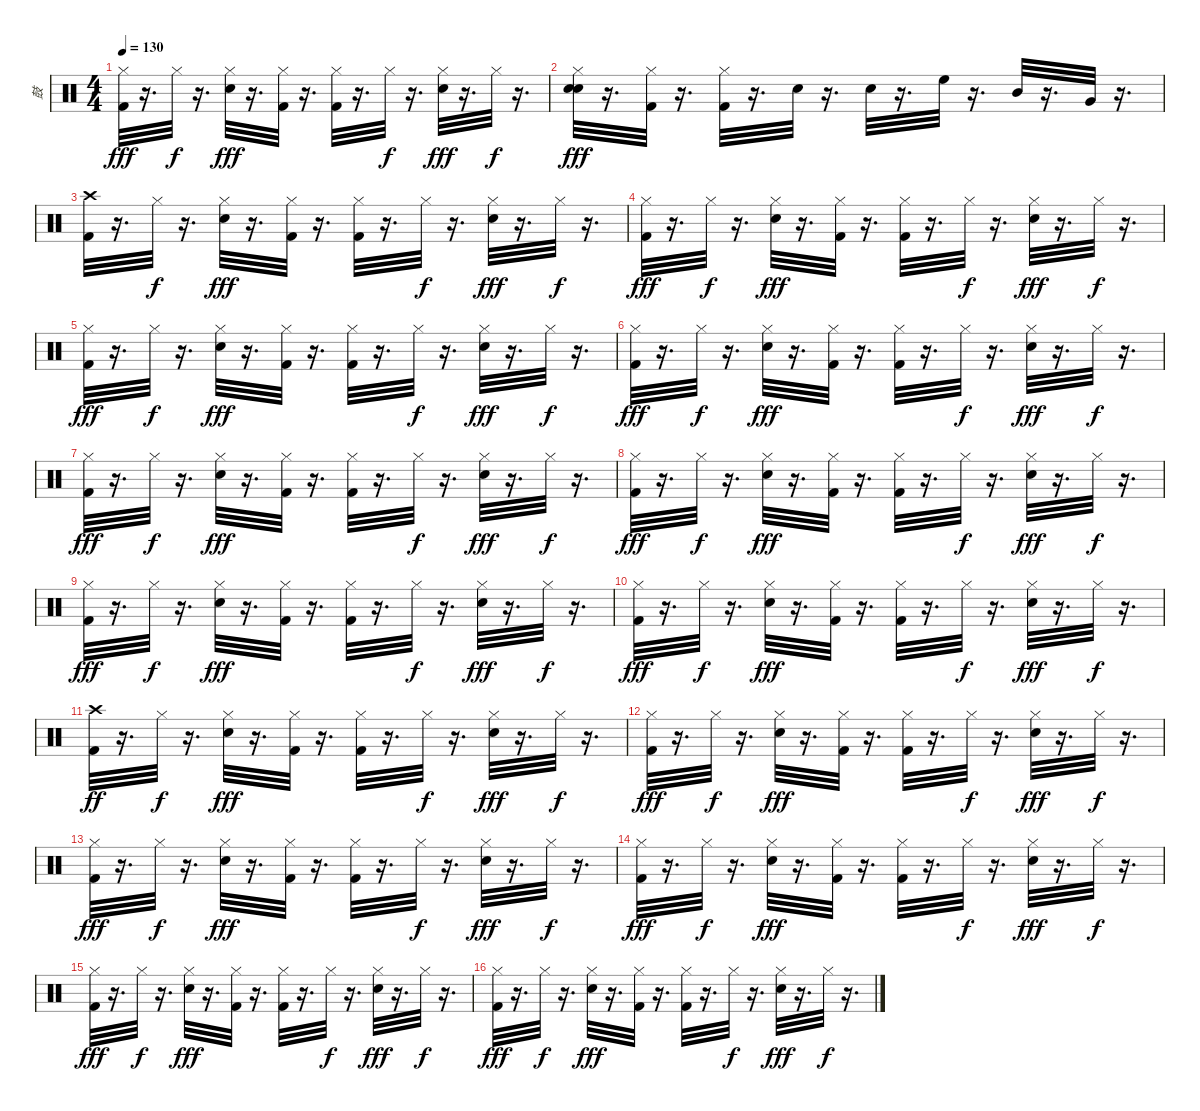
\track ("鼓" "鼓") {instrument percussion}
\staff {score}
\articulation defaults
\ts (4 4)
\tempo 130
\clef neutral
\ks c
("Kick (hit) 2" "Hi-Hat (closed)").32{dy fff} r.16{d} "Hi-Hat (closed)".32{dy f} r.16{d} ("Hi-Hat (closed)" "Electric Snare (hit)").32{dy fff} r.16{d} ("Kick (hit) 2" "Hi-Hat (closed)").32 r.16{d} ("Kick (hit) 2" "Hi-Hat (closed)").32 r.16{d} "Hi-Hat (closed)".32{dy f} r.16{d} ("Hi-Hat (closed)" "Electric Snare (hit)").32{dy fff} r.16{d} "Hi-Hat (closed)".32{dy f} r.16{d} |
("Electric Snare (hit)" "Hi-Hat (closed)" "Electric Snare (hit)").32{dy fff} r.16{d} ("Kick (hit) 2" "Hi-Hat (closed)").32 r.16{d} ("Hi-Hat (closed)" "Kick (hit) 2").32 r.16{d} "Electric Snare (hit)".32 r.16{d} "Electric Snare (hit)".32 r.16{d} "High Floor Tom (hit)".32 r.16{d} "Mid Tom (hit)".32 r.16{d} "Very Low Tom (hit)".32 r.16{d} |
("Crash high (hit)" "Kick (hit) 2").32 r.16{d} "Hi-Hat (closed)".32{dy f} r.16{d} ("Hi-Hat (closed)" "Electric Snare (hit)").32{dy fff} r.16{d} ("Kick (hit) 2" "Hi-Hat (closed)").32 r.16{d} ("Kick (hit) 2" "Hi-Hat (closed)").32 r.16{d} "Hi-Hat (closed)".32{dy f} r.16{d} ("Hi-Hat (closed)" "Electric Snare (hit)").32{dy fff} r.16{d} "Hi-Hat (closed)".32{dy f} r.16{d} |
("Kick (hit) 2" "Hi-Hat (closed)").32{dy fff} r.16{d} "Hi-Hat (closed)".32{dy f} r.16{d} ("Hi-Hat (closed)" "Electric Snare (hit)").32{dy fff} r.16{d} ("Kick (hit) 2" "Hi-Hat (closed)").32 r.16{d} ("Kick (hit) 2" "Hi-Hat (closed)").32 r.16{d} "Hi-Hat (closed)".32{dy f} r.16{d} ("Hi-Hat (closed)" "Electric Snare (hit)").32{dy fff} r.16{d} "Hi-Hat (closed)".32{dy f} r.16{d} |
("Kick (hit) 2" "Hi-Hat (closed)").32{dy fff} r.16{d} "Hi-Hat (closed)".32{dy f} r.16{d} ("Hi-Hat (closed)" "Electric Snare (hit)").32{dy fff} r.16{d} ("Kick (hit) 2" "Hi-Hat (closed)").32 r.16{d} ("Kick (hit) 2" "Hi-Hat (closed)").32 r.16{d} "Hi-Hat (closed)".32{dy f} r.16{d} ("Hi-Hat (closed)" "Electric Snare (hit)").32{dy fff} r.16{d} "Hi-Hat (closed)".32{dy f} r.16{d} |
("Kick (hit) 2" "Hi-Hat (closed)").32{dy fff} r.16{d} "Hi-Hat (closed)".32{dy f} r.16{d} ("Hi-Hat (closed)" "Electric Snare (hit)").32{dy fff} r.16{d} ("Kick (hit) 2" "Hi-Hat (closed)").32 r.16{d} ("Kick (hit) 2" "Hi-Hat (closed)").32 r.16{d} "Hi-Hat (closed)".32{dy f} r.16{d} ("Hi-Hat (closed)" "Electric Snare (hit)").32{dy fff} r.16{d} "Hi-Hat (closed)".32{dy f} r.16{d} |
("Kick (hit) 2" "Hi-Hat (closed)").32{dy fff} r.16{d} "Hi-Hat (closed)".32{dy f} r.16{d} ("Hi-Hat (closed)" "Electric Snare (hit)").32{dy fff} r.16{d} ("Kick (hit) 2" "Hi-Hat (closed)").32 r.16{d} ("Kick (hit) 2" "Hi-Hat (closed)").32 r.16{d} "Hi-Hat (closed)".32{dy f} r.16{d} ("Hi-Hat (closed)" "Electric Snare (hit)").32{dy fff} r.16{d} "Hi-Hat (closed)".32{dy f} r.16{d} |
("Kick (hit) 2" "Hi-Hat (closed)").32{dy fff} r.16{d} "Hi-Hat (closed)".32{dy f} r.16{d} ("Hi-Hat (closed)" "Electric Snare (hit)").32{dy fff} r.16{d} ("Kick (hit) 2" "Hi-Hat (closed)").32 r.16{d} ("Kick (hit) 2" "Hi-Hat (closed)").32 r.16{d} "Hi-Hat (closed)".32{dy f} r.16{d} ("Hi-Hat (closed)" "Electric Snare (hit)").32{dy fff} r.16{d} "Hi-Hat (closed)".32{dy f} r.16{d} |
("Kick (hit) 2" "Hi-Hat (closed)").32{dy fff} r.16{d} "Hi-Hat (closed)".32{dy f} r.16{d} ("Hi-Hat (closed)" "Electric Snare (hit)").32{dy fff} r.16{d} ("Kick (hit) 2" "Hi-Hat (closed)").32 r.16{d} ("Kick (hit) 2" "Hi-Hat (closed)").32 r.16{d} "Hi-Hat (closed)".32{dy f} r.16{d} ("Hi-Hat (closed)" "Electric Snare (hit)").32{dy fff} r.16{d} "Hi-Hat (closed)".32{dy f} r.16{d} |
("Kick (hit) 2" "Hi-Hat (closed)").32{dy fff} r.16{d} "Hi-Hat (closed)".32{dy f} r.16{d} ("Hi-Hat (closed)" "Electric Snare (hit)").32{dy fff} r.16{d} ("Kick (hit) 2" "Hi-Hat (closed)").32 r.16{d} ("Kick (hit) 2" "Hi-Hat (closed)").32 r.16{d} "Hi-Hat (closed)".32{dy f} r.16{d} ("Hi-Hat (closed)" "Electric Snare (hit)").32{dy fff} r.16{d} "Hi-Hat (closed)".32{dy f} r.16{d} |
("Kick (hit) 2" "Crash high (hit)").32{dy ff} r.16{d} "Hi-Hat (closed)".32{dy f} r.16{d} ("Hi-Hat (closed)" "Electric Snare (hit)").32{dy fff} r.16{d} ("Kick (hit) 2" "Hi-Hat (closed)").32 r.16{d} ("Kick (hit) 2" "Hi-Hat (closed)").32 r.16{d} "Hi-Hat (closed)".32{dy f} r.16{d} ("Hi-Hat (closed)" "Electric Snare (hit)").32{dy fff} r.16{d} "Hi-Hat (closed)".32{dy f} r.16{d} |
("Kick (hit) 2" "Hi-Hat (closed)").32{dy fff} r.16{d} "Hi-Hat (closed)".32{dy f} r.16{d} ("Hi-Hat (closed)" "Electric Snare (hit)").32{dy fff} r.16{d} ("Kick (hit) 2" "Hi-Hat (closed)").32 r.16{d} ("Kick (hit) 2" "Hi-Hat (closed)").32 r.16{d} "Hi-Hat (closed)".32{dy f} r.16{d} ("Hi-Hat (closed)" "Electric Snare (hit)").32{dy fff} r.16{d} "Hi-Hat (closed)".32{dy f} r.16{d} |
("Kick (hit) 2" "Hi-Hat (closed)").32{dy fff} r.16{d} "Hi-Hat (closed)".32{dy f} r.16{d} ("Hi-Hat (closed)" "Electric Snare (hit)").32{dy fff} r.16{d} ("Kick (hit) 2" "Hi-Hat (closed)").32 r.16{d} ("Kick (hit) 2" "Hi-Hat (closed)").32 r.16{d} "Hi-Hat (closed)".32{dy f} r.16{d} ("Hi-Hat (closed)" "Electric Snare (hit)").32{dy fff} r.16{d} "Hi-Hat (closed)".32{dy f} r.16{d} |
("Kick (hit) 2" "Hi-Hat (closed)").32{dy fff} r.16{d} "Hi-Hat (closed)".32{dy f} r.16{d} ("Hi-Hat (closed)" "Electric Snare (hit)").32{dy fff} r.16{d} ("Kick (hit) 2" "Hi-Hat (closed)").32 r.16{d} ("Kick (hit) 2" "Hi-Hat (closed)").32 r.16{d} "Hi-Hat (closed)".32{dy f} r.16{d} ("Hi-Hat (closed)" "Electric Snare (hit)").32{dy fff} r.16{d} "Hi-Hat (closed)".32{dy f} r.16{d} |
("Kick (hit) 2" "Hi-Hat (closed)").32{dy fff} r.16{d} "Hi-Hat (closed)".32{dy f} r.16{d} ("Hi-Hat (closed)" "Electric Snare (hit)").32{dy fff} r.16{d} ("Kick (hit) 2" "Hi-Hat (closed)").32 r.16{d} ("Kick (hit) 2" "Hi-Hat (closed)").32 r.16{d} "Hi-Hat (closed)".32{dy f} r.16{d} ("Hi-Hat (closed)" "Electric Snare (hit)").32{dy fff} r.16{d} "Hi-Hat (closed)".32{dy f} r.16{d} |
("Kick (hit) 2" "Hi-Hat (closed)").32{dy fff} r.16{d} "Hi-Hat (closed)".32{dy f} r.16{d} ("Hi-Hat (closed)" "Electric Snare (hit)").32{dy fff} r.16{d} ("Kick (hit) 2" "Hi-Hat (closed)").32 r.16{d} ("Kick (hit) 2" "Hi-Hat (closed)").32 r.16{d} "Hi-Hat (closed)".32{dy f} r.16{d} ("Hi-Hat (closed)" "Electric Snare (hit)").32{dy fff} r.16{d} "Hi-Hat (closed)".32{dy f} r.16{d}
